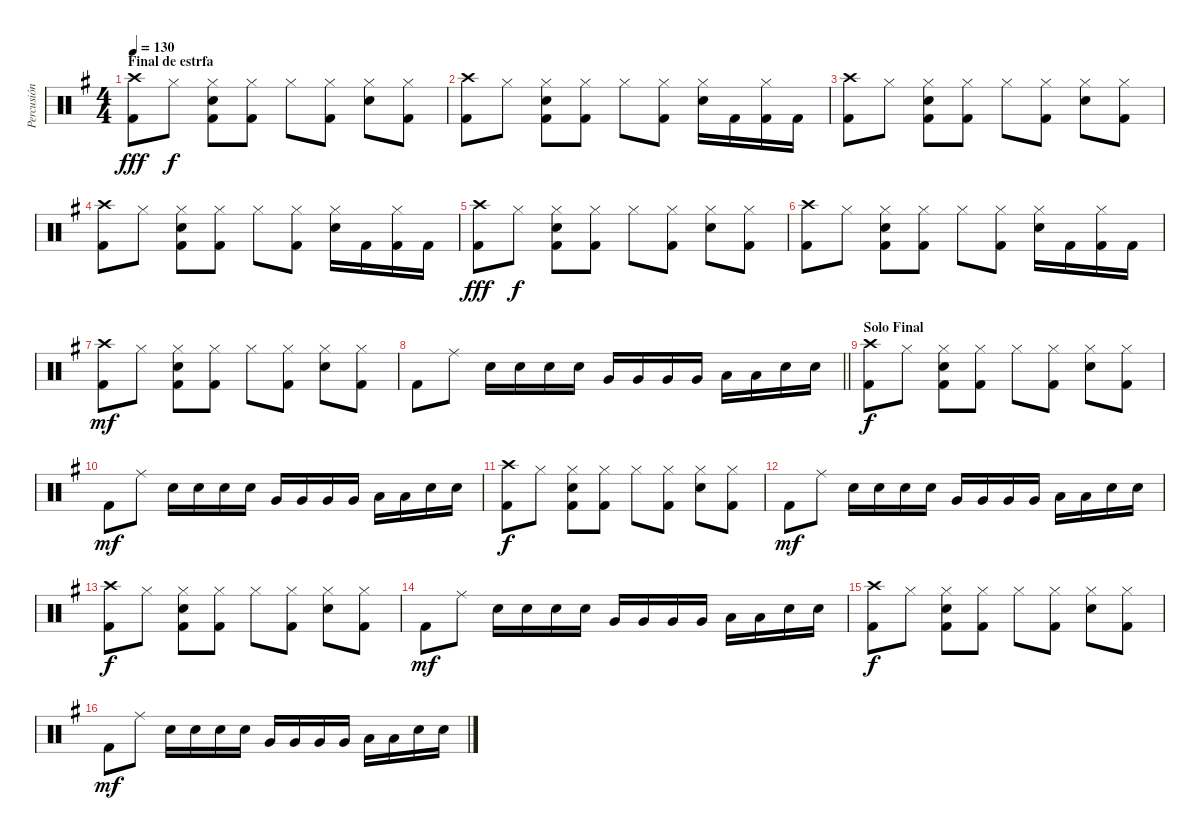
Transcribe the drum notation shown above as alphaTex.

\track ("Percusión" "Percusión") {instrument percussion}
\staff {score}
\articulation defaults
\ts (4 4)
\section ("" "Final de estrfa")
\tempo 130
\clef neutral
\ks g
("Crash high (hit)" "Kick (hit) 2").8{dy fff} "Hi-Hat (closed)".8{dy f} ("Hi-Hat (closed)" "Snare (hit) 2" "Kick (hit) 2").8 ("Hi-Hat (closed)" "Kick (hit) 2").8 "Hi-Hat (closed)".8 ("Hi-Hat (closed)" "Kick (hit) 2").8 ("Hi-Hat (closed)" "Snare (hit) 2").8 ("Hi-Hat (closed)" "Kick (hit) 2").8 |
("Crash high (hit)" "Kick (hit) 2").8 "Hi-Hat (closed)".8 ("Hi-Hat (closed)" "Snare (hit) 2" "Kick (hit) 2").8 ("Hi-Hat (closed)" "Kick (hit) 2").8 "Hi-Hat (closed)".8 ("Hi-Hat (closed)" "Kick (hit) 2").8 ("Hi-Hat (closed)" "Snare (hit) 2").16 "Kick (hit) 2".16 ("Hi-Hat (closed)" "Kick (hit) 2").16 "Kick (hit) 2".16 |
("Crash high (hit)" "Kick (hit) 2").8 "Hi-Hat (closed)".8 ("Hi-Hat (closed)" "Snare (hit) 2" "Kick (hit) 2").8 ("Hi-Hat (closed)" "Kick (hit) 2").8 "Hi-Hat (closed)".8 ("Hi-Hat (closed)" "Kick (hit) 2").8 ("Hi-Hat (closed)" "Snare (hit) 2").8 ("Hi-Hat (closed)" "Kick (hit) 2").8 |
("Crash high (hit)" "Kick (hit) 2").8 "Hi-Hat (closed)".8 ("Hi-Hat (closed)" "Snare (hit) 2" "Kick (hit) 2").8 ("Hi-Hat (closed)" "Kick (hit) 2").8 "Hi-Hat (closed)".8 ("Hi-Hat (closed)" "Kick (hit) 2").8 ("Hi-Hat (closed)" "Snare (hit) 2").16 "Kick (hit) 2".16 ("Hi-Hat (closed)" "Kick (hit) 2").16 "Kick (hit) 2".16 |
("Crash high (hit)" "Kick (hit) 2").8{dy fff} "Hi-Hat (closed)".8{dy f} ("Hi-Hat (closed)" "Snare (hit) 2" "Kick (hit) 2").8 ("Hi-Hat (closed)" "Kick (hit) 2").8 "Hi-Hat (closed)".8 ("Hi-Hat (closed)" "Kick (hit) 2").8 ("Hi-Hat (closed)" "Snare (hit) 2").8 ("Hi-Hat (closed)" "Kick (hit) 2").8 |
("Crash high (hit)" "Kick (hit) 2").8 "Hi-Hat (closed)".8 ("Hi-Hat (closed)" "Snare (hit) 2" "Kick (hit) 2").8 ("Hi-Hat (closed)" "Kick (hit) 2").8 "Hi-Hat (closed)".8 ("Hi-Hat (closed)" "Kick (hit) 2").8 ("Hi-Hat (closed)" "Snare (hit) 2").16 "Kick (hit) 2".16 ("Hi-Hat (closed)" "Kick (hit) 2").16 "Kick (hit) 2".16 |
("Crash high (hit)" "Kick (hit) 2").8{dy mf} "Hi-Hat (closed)".8 ("Hi-Hat (closed)" "Snare (hit) 2" "Kick (hit) 2").8 ("Hi-Hat (closed)" "Kick (hit) 2").8 "Hi-Hat (closed)".8 ("Hi-Hat (closed)" "Kick (hit) 2").8 ("Hi-Hat (closed)" "Snare (hit) 2").8 ("Hi-Hat (closed)" "Kick (hit) 2").8 |
\barLineRight lightlight "Kick (hit) 2".8 "Ride (middle)".8 "Snare (hit) 2".16 "Snare (hit) 2".16 "Snare (hit) 2".16 "Snare (hit) 2".16 "Very Low Tom (hit)".16 "Very Low Tom (hit)".16 "Very Low Tom (hit)".16 "Very Low Tom (hit)".16 "Low Tom (hit)".16 "Low Tom (hit)".16 "Snare (hit) 2".16 "Snare (hit) 2".16
|
\section ("" "Solo Final")
("Crash high (hit)" "Kick (hit) 2").8{dy f} "Hi-Hat (closed)".8 ("Hi-Hat (closed)" "Snare (hit) 2" "Kick (hit) 2").8 ("Hi-Hat (closed)" "Kick (hit) 2").8 "Hi-Hat (closed)".8 ("Hi-Hat (closed)" "Kick (hit) 2").8 ("Hi-Hat (closed)" "Snare (hit) 2").8 ("Hi-Hat (closed)" "Kick (hit) 2").8 |
"Kick (hit) 2".8{dy mf} "Ride (middle)".8 "Snare (hit) 2".16 "Snare (hit) 2".16 "Snare (hit) 2".16 "Snare (hit) 2".16 "Very Low Tom (hit)".16 "Very Low Tom (hit)".16 "Very Low Tom (hit)".16 "Very Low Tom (hit)".16 "Low Tom (hit)".16 "Low Tom (hit)".16 "Snare (hit) 2".16 "Snare (hit) 2".16 |
("Crash high (hit)" "Kick (hit) 2").8{dy f} "Hi-Hat (closed)".8 ("Hi-Hat (closed)" "Snare (hit) 2" "Kick (hit) 2").8 ("Hi-Hat (closed)" "Kick (hit) 2").8 "Hi-Hat (closed)".8 ("Hi-Hat (closed)" "Kick (hit) 2").8 ("Hi-Hat (closed)" "Snare (hit) 2").8 ("Hi-Hat (closed)" "Kick (hit) 2").8 |
"Kick (hit) 2".8{dy mf} "Ride (middle)".8 "Snare (hit) 2".16 "Snare (hit) 2".16 "Snare (hit) 2".16 "Snare (hit) 2".16 "Very Low Tom (hit)".16 "Very Low Tom (hit)".16 "Very Low Tom (hit)".16 "Very Low Tom (hit)".16 "Low Tom (hit)".16 "Low Tom (hit)".16 "Snare (hit) 2".16 "Snare (hit) 2".16 |
("Crash high (hit)" "Kick (hit) 2").8{dy f} "Hi-Hat (closed)".8 ("Hi-Hat (closed)" "Snare (hit) 2" "Kick (hit) 2").8 ("Hi-Hat (closed)" "Kick (hit) 2").8 "Hi-Hat (closed)".8 ("Hi-Hat (closed)" "Kick (hit) 2").8 ("Hi-Hat (closed)" "Snare (hit) 2").8 ("Hi-Hat (closed)" "Kick (hit) 2").8 |
"Kick (hit) 2".8{dy mf} "Ride (middle)".8 "Snare (hit) 2".16 "Snare (hit) 2".16 "Snare (hit) 2".16 "Snare (hit) 2".16 "Very Low Tom (hit)".16 "Very Low Tom (hit)".16 "Very Low Tom (hit)".16 "Very Low Tom (hit)".16 "Low Tom (hit)".16 "Low Tom (hit)".16 "Snare (hit) 2".16 "Snare (hit) 2".16 |
("Crash high (hit)" "Kick (hit) 2").8{dy f} "Hi-Hat (closed)".8 ("Hi-Hat (closed)" "Snare (hit) 2" "Kick (hit) 2").8 ("Hi-Hat (closed)" "Kick (hit) 2").8 "Hi-Hat (closed)".8 ("Hi-Hat (closed)" "Kick (hit) 2").8 ("Hi-Hat (closed)" "Snare (hit) 2").8 ("Hi-Hat (closed)" "Kick (hit) 2").8 |
"Kick (hit) 2".8{dy mf} "Ride (middle)".8 "Snare (hit) 2".16 "Snare (hit) 2".16 "Snare (hit) 2".16 "Snare (hit) 2".16 "Very Low Tom (hit)".16 "Very Low Tom (hit)".16 "Very Low Tom (hit)".16 "Very Low Tom (hit)".16 "Low Tom (hit)".16 "Low Tom (hit)".16 "Snare (hit) 2".16 "Snare (hit) 2".16
